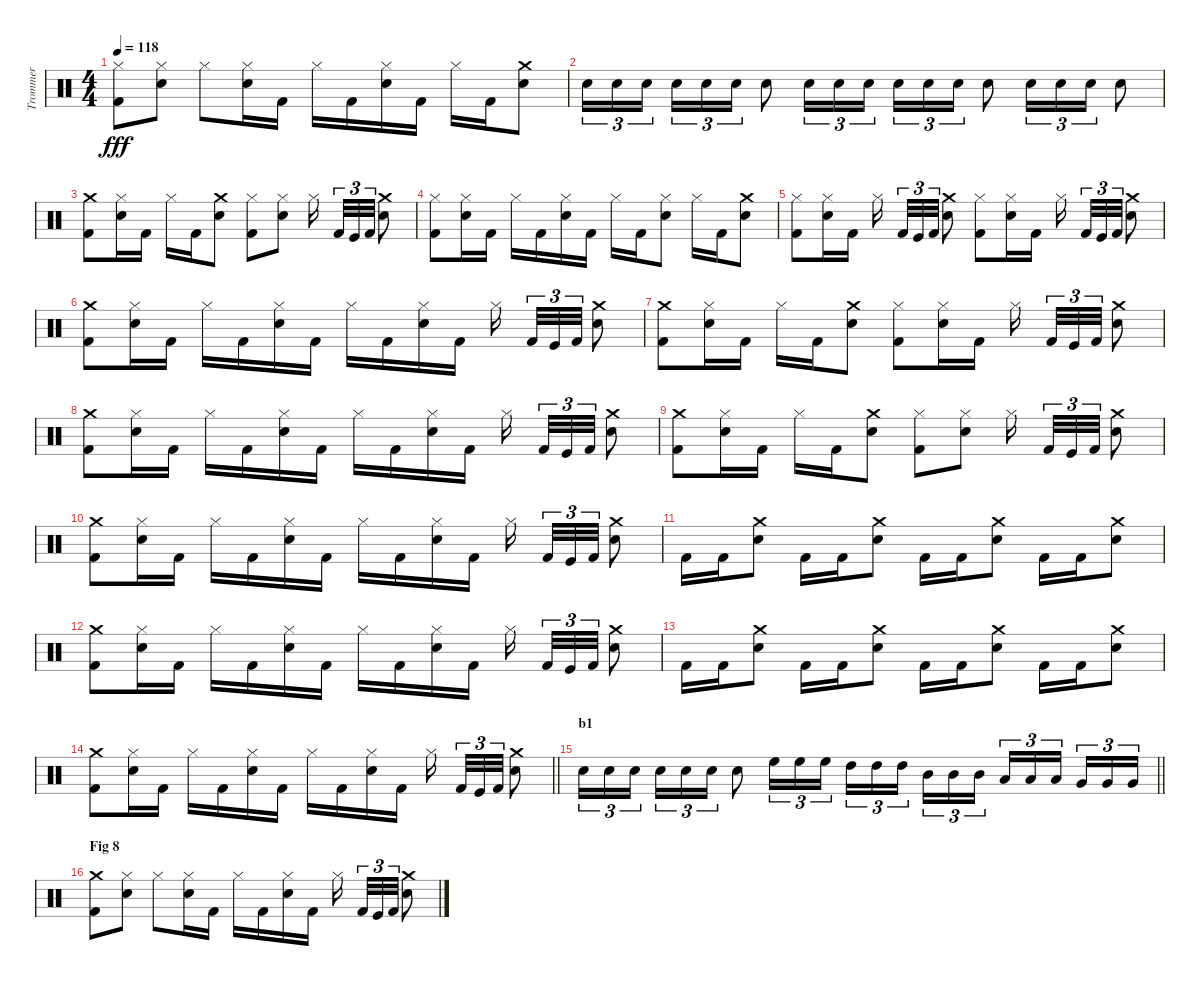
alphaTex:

\track ("Trommer" "Trommer") {instrument percussion}
\staff {score}
\articulation defaults
\ts (4 4)
\tempo 118
\clef neutral
\ks c
("Hi-Hat (closed)" "Kick (hit) 2").8{dy fff} ("Hi-Hat (closed)" "Electric Snare (hit)").8 "Hi-Hat (closed)".8 ("Hi-Hat (closed)" "Electric Snare (hit)").16 "Kick (hit) 2".16 "Hi-Hat (closed)".16 "Kick (hit) 2".16 ("Hi-Hat (closed)" "Electric Snare (hit)").16 "Kick (hit) 2".16 "Hi-Hat (closed)".16 "Kick (hit) 2".16 ("Crash medium (hit)" "Electric Snare (hit)").8 |
"Electric Snare (hit)".16{tu (3 2)} "Electric Snare (hit)".16{tu (3 2)} "Electric Snare (hit)".16{tu (3 2) beam splitsecondary} "Electric Snare (hit)".16{tu (3 2)} "Electric Snare (hit)".16{tu (3 2)} "Electric Snare (hit)".16{tu (3 2)} "Electric Snare (hit)".8 "Electric Snare (hit)".16{tu (3 2)} "Electric Snare (hit)".16{tu (3 2)} "Electric Snare (hit)".16{tu (3 2)} "Electric Snare (hit)".16{tu (3 2)} "Electric Snare (hit)".16{tu (3 2)} "Electric Snare (hit)".16{tu (3 2)} "Electric Snare (hit)".8 "Electric Snare (hit)".16{tu (3 2)} "Electric Snare (hit)".16{tu (3 2)} "Electric Snare (hit)".16{tu (3 2)} "Electric Snare (hit)".8 |
("Crash medium (hit)" "Kick (hit) 2").8 ("Hi-Hat (closed)" "Electric Snare (hit)").16 "Kick (hit) 2".16 "Hi-Hat (closed)".16 "Kick (hit) 2".16 ("Crash medium (hit)" "Electric Snare (hit)").8 ("Hi-Hat (closed)" "Kick (hit) 2").8 ("Hi-Hat (closed)" "Electric Snare (hit)").8 "Hi-Hat (closed)".16{beam splitsecondary} "Kick (hit) 2".32{tu (3 2)} "Kick (hit)".32{tu (3 2)} "Kick (hit) 2".32{tu (3 2)} ("Crash medium (hit)" "Electric Snare (hit)").8 |
("Hi-Hat (closed)" "Kick (hit) 2").8 ("Hi-Hat (closed)" "Electric Snare (hit)").16 "Kick (hit) 2".16 "Hi-Hat (closed)".16 "Kick (hit) 2".16 ("Hi-Hat (closed)" "Electric Snare (hit)").16 "Kick (hit) 2".16 "Hi-Hat (closed)".16 "Kick (hit) 2".16 ("Hi-Hat (closed)" "Electric Snare (hit)").8 "Hi-Hat (closed)".16 "Kick (hit) 2".16 ("Crash medium (hit)" "Electric Snare (hit)").8 |
("Hi-Hat (closed)" "Kick (hit) 2").8 ("Hi-Hat (closed)" "Electric Snare (hit)").16 "Kick (hit) 2".16 "Hi-Hat (closed)".16{beam splitsecondary} "Kick (hit) 2".32{tu (3 2)} "Kick (hit)".32{tu (3 2)} "Kick (hit) 2".32{tu (3 2)} ("Crash medium (hit)" "Electric Snare (hit)").8 ("Hi-Hat (closed)" "Kick (hit) 2").8 ("Hi-Hat (closed)" "Electric Snare (hit)").16 "Kick (hit) 2".16 "Hi-Hat (closed)".16{beam splitsecondary} "Kick (hit) 2".32{tu (3 2)} "Kick (hit)".32{tu (3 2)} "Kick (hit) 2".32{tu (3 2)} ("Crash medium (hit)" "Electric Snare (hit)").8 |
("Crash medium (hit)" "Kick (hit) 2").8 ("Hi-Hat (closed)" "Electric Snare (hit)").16 "Kick (hit) 2".16 "Hi-Hat (closed)".16 "Kick (hit) 2".16 ("Hi-Hat (closed)" "Electric Snare (hit)").16 "Kick (hit) 2".16 "Hi-Hat (closed)".16 "Kick (hit) 2".16 ("Hi-Hat (closed)" "Electric Snare (hit)").16 "Kick (hit) 2".16 "Hi-Hat (closed)".16{beam splitsecondary} "Kick (hit) 2".32{tu (3 2)} "Kick (hit)".32{tu (3 2)} "Kick (hit) 2".32{tu (3 2)} ("Crash medium (hit)" "Electric Snare (hit)").8 |
("Crash medium (hit)" "Kick (hit) 2").8 ("Hi-Hat (closed)" "Electric Snare (hit)").16 "Kick (hit) 2".16 "Hi-Hat (closed)".16 "Kick (hit) 2".16 ("Crash medium (hit)" "Electric Snare (hit)").8 ("Hi-Hat (closed)" "Kick (hit) 2").8 ("Hi-Hat (closed)" "Electric Snare (hit)").16 "Kick (hit) 2".16 "Hi-Hat (closed)".16{beam splitsecondary} "Kick (hit) 2".32{tu (3 2)} "Kick (hit)".32{tu (3 2)} "Kick (hit) 2".32{tu (3 2)} ("Crash medium (hit)" "Electric Snare (hit)").8 |
("Crash medium (hit)" "Kick (hit) 2").8 ("Hi-Hat (closed)" "Electric Snare (hit)").16 "Kick (hit) 2".16 "Hi-Hat (closed)".16 "Kick (hit) 2".16 ("Hi-Hat (closed)" "Electric Snare (hit)").16 "Kick (hit) 2".16 "Hi-Hat (closed)".16 "Kick (hit) 2".16 ("Hi-Hat (closed)" "Electric Snare (hit)").16 "Kick (hit) 2".16 "Hi-Hat (closed)".16{beam splitsecondary} "Kick (hit) 2".32{tu (3 2)} "Kick (hit)".32{tu (3 2)} "Kick (hit) 2".32{tu (3 2)} ("Crash medium (hit)" "Electric Snare (hit)").8 |
("Crash medium (hit)" "Kick (hit) 2").8 ("Hi-Hat (closed)" "Electric Snare (hit)").16 "Kick (hit) 2".16 "Hi-Hat (closed)".16 "Kick (hit) 2".16 ("Crash medium (hit)" "Electric Snare (hit)").8 ("Hi-Hat (closed)" "Kick (hit) 2").8 ("Hi-Hat (closed)" "Electric Snare (hit)").8 "Hi-Hat (closed)".16{beam splitsecondary} "Kick (hit) 2".32{tu (3 2)} "Kick (hit)".32{tu (3 2)} "Kick (hit) 2".32{tu (3 2)} ("Crash medium (hit)" "Electric Snare (hit)").8 |
("Crash medium (hit)" "Kick (hit) 2").8 ("Hi-Hat (closed)" "Electric Snare (hit)").16 "Kick (hit) 2".16 "Hi-Hat (closed)".16 "Kick (hit) 2".16 ("Hi-Hat (closed)" "Electric Snare (hit)").16 "Kick (hit) 2".16 "Hi-Hat (closed)".16 "Kick (hit) 2".16 ("Hi-Hat (closed)" "Electric Snare (hit)").16 "Kick (hit) 2".16 "Hi-Hat (closed)".16{beam splitsecondary} "Kick (hit) 2".32{tu (3 2)} "Kick (hit)".32{tu (3 2)} "Kick (hit) 2".32{tu (3 2)} ("Crash medium (hit)" "Electric Snare (hit)").8 |
"Kick (hit) 2".16 "Kick (hit) 2".16 ("Crash medium (hit)" "Electric Snare (hit)").8 "Kick (hit) 2".16 "Kick (hit) 2".16 ("Crash medium (hit)" "Electric Snare (hit)").8 "Kick (hit) 2".16 "Kick (hit) 2".16 ("Crash medium (hit)" "Electric Snare (hit)").8 "Kick (hit) 2".16 "Kick (hit) 2".16 ("Crash medium (hit)" "Electric Snare (hit)").8 |
("Crash medium (hit)" "Kick (hit) 2").8 ("Hi-Hat (closed)" "Electric Snare (hit)").16 "Kick (hit) 2".16 "Hi-Hat (closed)".16 "Kick (hit) 2".16 ("Hi-Hat (closed)" "Electric Snare (hit)").16 "Kick (hit) 2".16 "Hi-Hat (closed)".16 "Kick (hit) 2".16 ("Hi-Hat (closed)" "Electric Snare (hit)").16 "Kick (hit) 2".16 "Hi-Hat (closed)".16{beam splitsecondary} "Kick (hit) 2".32{tu (3 2)} "Kick (hit)".32{tu (3 2)} "Kick (hit) 2".32{tu (3 2)} ("Crash medium (hit)" "Electric Snare (hit)").8 |
"Kick (hit) 2".16 "Kick (hit) 2".16 ("Crash medium (hit)" "Electric Snare (hit)").8 "Kick (hit) 2".16 "Kick (hit) 2".16 ("Crash medium (hit)" "Electric Snare (hit)").8 "Kick (hit) 2".16 "Kick (hit) 2".16 ("Crash medium (hit)" "Electric Snare (hit)").8 "Kick (hit) 2".16 "Kick (hit) 2".16 ("Crash medium (hit)" "Electric Snare (hit)").8 |
\barLineRight lightlight
("Crash medium (hit)" "Kick (hit) 2").8 ("Hi-Hat (closed)" "Electric Snare (hit)").16 "Kick (hit) 2".16 "Hi-Hat (closed)".16 "Kick (hit) 2".16 ("Hi-Hat (closed)" "Electric Snare (hit)").16 "Kick (hit) 2".16 "Hi-Hat (closed)".16 "Kick (hit) 2".16 ("Hi-Hat (closed)" "Electric Snare (hit)").16 "Kick (hit) 2".16 "Hi-Hat (closed)".16{beam splitsecondary} "Kick (hit) 2".32{tu (3 2)} "Kick (hit)".32{tu (3 2)} "Kick (hit) 2".32{tu (3 2)} ("Crash medium (hit)" "Electric Snare (hit)").8 |
\section ("" "b1")
\barLineRight lightlight "Electric Snare (hit)".16{tu (3 2)} "Electric Snare (hit)".16{tu (3 2)} "Electric Snare (hit)".16{tu (3 2) beam splitsecondary} "Electric Snare (hit)".16{tu (3 2)} "Electric Snare (hit)".16{tu (3 2)} "Electric Snare (hit)".16{tu (3 2)} "Electric Snare (hit)".8 "High Floor Tom (hit)".16{tu (3 2)} "High Floor Tom (hit)".16{tu (3 2)} "High Floor Tom (hit)".16{tu (3 2)} "High Tom (hit)".16{tu (3 2)} "High Tom (hit)".16{tu (3 2)} "High Tom (hit)".16{tu (3 2) beam splitsecondary} "Mid Tom (hit)".16{tu (3 2)} "Mid Tom (hit)".16{tu (3 2)} "Mid Tom (hit)".16{tu (3 2)} "Low Tom (hit)".16{tu (3 2)} "Low Tom (hit)".16{tu (3 2)} "Low Tom (hit)".16{tu (3 2) beam splitsecondary} "Very Low Tom (hit)".16{tu (3 2)} "Very Low Tom (hit)".16{tu (3 2)} "Very Low Tom (hit)".16{tu (3 2)}
|
\section ("" "Fig 8")
("Crash medium (hit)" "Kick (hit) 2").8 ("Hi-Hat (closed)" "Electric Snare (hit)").8 "Hi-Hat (closed)".8 ("Hi-Hat (closed)" "Electric Snare (hit)").16 "Kick (hit) 2".16 "Hi-Hat (closed)".16 "Kick (hit) 2".16 ("Hi-Hat (closed)" "Electric Snare (hit)").16 "Kick (hit) 2".16 "Hi-Hat (closed)".16{beam splitsecondary} "Kick (hit) 2".32{tu (3 2)} "Kick (hit)".32{tu (3 2)} "Kick (hit) 2".32{tu (3 2)} ("Crash medium (hit)" "Electric Snare (hit)").8
